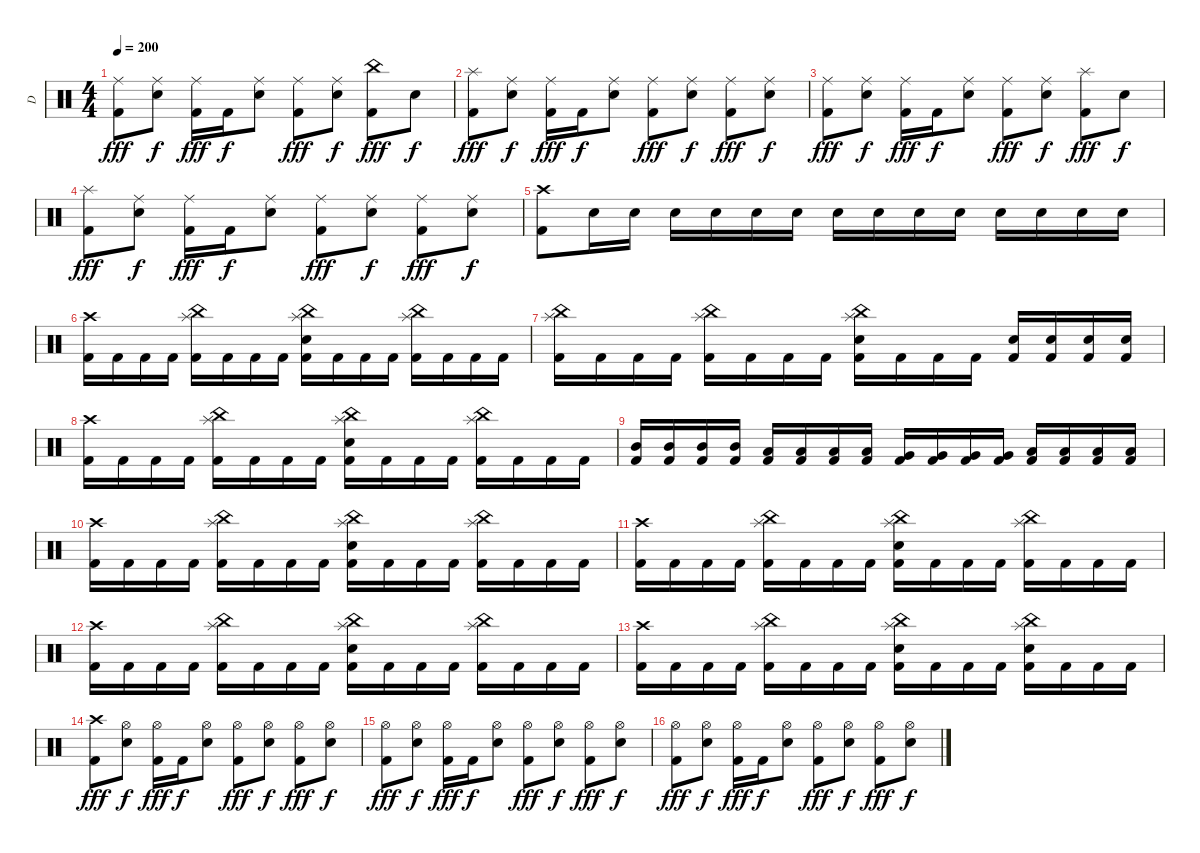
\track ("D" "D") {instrument percussion}
\staff {score}
\articulation defaults
\ts (4 4)
\tempo 200
\clef neutral
\ks c
("Ride (middle)" "Kick (hit) 2").8{dy fff} ("Ride (middle)" "Electric Snare (hit)").8{dy f} ("Ride (middle)" "Kick (hit) 2").16{dy fff} "Kick (hit) 2".16{dy f} ("Ride (middle)" "Electric Snare (hit)").8 ("Ride (middle)" "Kick (hit) 2").8{dy fff} ("Ride (middle)" "Electric Snare (hit)").8{dy f} ("China (hit)" "Kick (hit) 2").8{dy fff} "Electric Snare (hit)".8{dy f} |
("Splash (hit)" "Kick (hit) 2").8{dy fff} ("Ride (middle)" "Electric Snare (hit)").8{dy f} ("Ride (middle)" "Kick (hit) 2").16{dy fff} "Kick (hit) 2".16{dy f} ("Ride (middle)" "Electric Snare (hit)").8 ("Ride (middle)" "Kick (hit) 2").8{dy fff} ("Ride (middle)" "Electric Snare (hit)").8{dy f} ("Ride (middle)" "Kick (hit) 2").8{dy fff} ("Ride (middle)" "Electric Snare (hit)").8{dy f} |
("Ride (middle)" "Kick (hit) 2").8{dy fff} ("Ride (middle)" "Electric Snare (hit)").8{dy f} ("Ride (middle)" "Kick (hit) 2").16{dy fff} "Kick (hit) 2".16{dy f} ("Ride (middle)" "Electric Snare (hit)").8 ("Ride (middle)" "Kick (hit) 2").8{dy fff} ("Ride (middle)" "Electric Snare (hit)").8{dy f} ("Splash (hit)" "Kick (hit) 2").8{dy fff} "Electric Snare (hit)".8{dy f} |
("Splash (hit)" "Kick (hit) 2").8{dy fff} ("Ride (middle)" "Electric Snare (hit)").8{dy f} ("Ride (middle)" "Kick (hit) 2").16{dy fff} "Kick (hit) 2".16{dy f} ("Ride (middle)" "Electric Snare (hit)").8 ("Ride (middle)" "Kick (hit) 2").8{dy fff} ("Ride (middle)" "Electric Snare (hit)").8{dy f} ("Ride (middle)" "Kick (hit) 2").8{dy fff} ("Ride (middle)" "Electric Snare (hit)").8{dy f} |
("Crash high (hit)" "Kick (hit) 2").8 "Electric Snare (hit)".16 "Electric Snare (hit)".16 "Electric Snare (hit)".16 "Electric Snare (hit)".16 "Electric Snare (hit)".16 "Electric Snare (hit)".16 "Electric Snare (hit)".16 "Electric Snare (hit)".16 "Electric Snare (hit)".16 "Electric Snare (hit)".16 "Electric Snare (hit)".16 "Electric Snare (hit)".16 "Electric Snare (hit)".16 "Electric Snare (hit)".16 |
("Crash high (hit)" "Kick (hit) 2").16 "Kick (hit) 2".16 "Kick (hit) 2".16 "Kick (hit) 2".16 ("Splash (hit)" "China (hit)" "Kick (hit) 2").16 "Kick (hit) 2".16 "Kick (hit) 2".16 "Kick (hit) 2".16 ("Splash (hit)" "China (hit)" "Electric Snare (hit)" "Kick (hit) 2").16 "Kick (hit) 2".16 "Kick (hit) 2".16 "Kick (hit) 2".16 ("Splash (hit)" "China (hit)" "Kick (hit) 2").16 "Kick (hit) 2".16 "Kick (hit) 2".16 "Kick (hit) 2".16 |
("Splash (hit)" "China (hit)" "Kick (hit) 2").16 "Kick (hit) 2".16 "Kick (hit) 2".16 "Kick (hit) 2".16 ("Splash (hit)" "China (hit)" "Kick (hit) 2").16 "Kick (hit) 2".16 "Kick (hit) 2".16 "Kick (hit) 2".16 ("Splash (hit)" "China (hit)" "Electric Snare (hit)" "Kick (hit) 2").16 "Kick (hit) 2".16 "Kick (hit) 2".16 "Kick (hit) 2".16 ("Electric Snare (hit)" "Kick (hit) 2").16 ("Electric Snare (hit)" "Kick (hit) 2").16 ("Electric Snare (hit)" "Kick (hit) 2").16 ("Electric Snare (hit)" "Kick (hit) 2").16 |
("Crash high (hit)" "Kick (hit) 2").16 "Kick (hit) 2".16 "Kick (hit) 2".16 "Kick (hit) 2".16 ("Splash (hit)" "China (hit)" "Kick (hit) 2").16 "Kick (hit) 2".16 "Kick (hit) 2".16 "Kick (hit) 2".16 ("Splash (hit)" "China (hit)" "Electric Snare (hit)" "Kick (hit) 2").16 "Kick (hit) 2".16 "Kick (hit) 2".16 "Kick (hit) 2".16 ("Splash (hit)" "China (hit)" "Kick (hit) 2").16 "Kick (hit) 2".16 "Kick (hit) 2".16 "Kick (hit) 2".16 |
("Mid Tom (hit)" "Kick (hit) 2").16 ("Mid Tom (hit)" "Kick (hit) 2").16 ("Mid Tom (hit)" "Kick (hit) 2").16 ("Mid Tom (hit)" "Kick (hit) 2").16 ("Low Tom (hit)" "Kick (hit) 2").16 ("Low Tom (hit)" "Kick (hit) 2").16 ("Low Tom (hit)" "Kick (hit) 2").16 ("Low Tom (hit)" "Kick (hit) 2").16 ("Very Low Tom (hit)" "Kick (hit) 2").16 ("Very Low Tom (hit)" "Kick (hit) 2").16 ("Very Low Tom (hit)" "Kick (hit) 2").16 ("Very Low Tom (hit)" "Kick (hit) 2").16 ("Low Floor Tom (hit)" "Kick (hit) 2").16 ("Low Floor Tom (hit)" "Kick (hit) 2").16 ("Low Floor Tom (hit)" "Kick (hit) 2").16 ("Low Floor Tom (hit)" "Kick (hit) 2").16 |
("Crash high (hit)" "Kick (hit) 2").16 "Kick (hit) 2".16 "Kick (hit) 2".16 "Kick (hit) 2".16 ("Splash (hit)" "China (hit)" "Kick (hit) 2").16 "Kick (hit) 2".16 "Kick (hit) 2".16 "Kick (hit) 2".16 ("Splash (hit)" "China (hit)" "Electric Snare (hit)" "Kick (hit) 2").16 "Kick (hit) 2".16 "Kick (hit) 2".16 "Kick (hit) 2".16 ("Splash (hit)" "China (hit)" "Kick (hit) 2").16 "Kick (hit) 2".16 "Kick (hit) 2".16 "Kick (hit) 2".16 |
("Crash high (hit)" "Kick (hit) 2").16 "Kick (hit) 2".16 "Kick (hit) 2".16 "Kick (hit) 2".16 ("Splash (hit)" "China (hit)" "Kick (hit) 2").16 "Kick (hit) 2".16 "Kick (hit) 2".16 "Kick (hit) 2".16 ("Splash (hit)" "China (hit)" "Electric Snare (hit)" "Kick (hit) 2").16 "Kick (hit) 2".16 "Kick (hit) 2".16 "Kick (hit) 2".16 ("Splash (hit)" "China (hit)" "Kick (hit) 2").16 "Kick (hit) 2".16 "Kick (hit) 2".16 "Kick (hit) 2".16 |
("Crash high (hit)" "Kick (hit) 2").16 "Kick (hit) 2".16 "Kick (hit) 2".16 "Kick (hit) 2".16 ("Splash (hit)" "China (hit)" "Kick (hit) 2").16 "Kick (hit) 2".16 "Kick (hit) 2".16 "Kick (hit) 2".16 ("Splash (hit)" "China (hit)" "Electric Snare (hit)" "Kick (hit) 2").16 "Kick (hit) 2".16 "Kick (hit) 2".16 "Kick (hit) 2".16 ("Splash (hit)" "China (hit)" "Kick (hit) 2").16 "Kick (hit) 2".16 "Kick (hit) 2".16 "Kick (hit) 2".16 |
("Crash high (hit)" "Kick (hit) 2").16 "Kick (hit) 2".16 "Kick (hit) 2".16 "Kick (hit) 2".16 ("Splash (hit)" "China (hit)" "Kick (hit) 2").16 "Kick (hit) 2".16 "Kick (hit) 2".16 "Kick (hit) 2".16 ("Splash (hit)" "China (hit)" "Electric Snare (hit)" "Kick (hit) 2").16 "Kick (hit) 2".16 "Kick (hit) 2".16 "Kick (hit) 2".16 ("Splash (hit)" "China (hit)" "Electric Snare (hit)" "Kick (hit) 2").16 "Kick (hit) 2".16 "Kick (hit) 2".16 "Kick (hit) 2".16 |
("Crash high (hit)" "Kick (hit) 2").8{dy fff} ("Hi-Hat (open)" "Electric Snare (hit)").8{dy f} ("Hi-Hat (open)" "Kick (hit) 2").16{dy fff} "Kick (hit) 2".16{dy f} ("Hi-Hat (open)" "Electric Snare (hit)").8 ("Hi-Hat (open)" "Kick (hit) 2").8{dy fff} ("Hi-Hat (open)" "Electric Snare (hit)").8{dy f} ("Hi-Hat (open)" "Kick (hit) 2").8{dy fff} ("Hi-Hat (open)" "Electric Snare (hit)").8{dy f} |
("Hi-Hat (open)" "Kick (hit) 2").8{dy fff} ("Hi-Hat (open)" "Electric Snare (hit)").8{dy f} ("Hi-Hat (open)" "Kick (hit) 2").16{dy fff} "Kick (hit) 2".16{dy f} ("Hi-Hat (open)" "Electric Snare (hit)").8 ("Hi-Hat (open)" "Kick (hit) 2").8{dy fff} ("Hi-Hat (open)" "Electric Snare (hit)").8{dy f} ("Hi-Hat (open)" "Kick (hit) 2").8{dy fff} ("Hi-Hat (open)" "Electric Snare (hit)").8{dy f} |
("Hi-Hat (open)" "Kick (hit) 2").8{dy fff} ("Hi-Hat (open)" "Electric Snare (hit)").8{dy f} ("Hi-Hat (open)" "Kick (hit) 2").16{dy fff} "Kick (hit) 2".16{dy f} ("Hi-Hat (open)" "Electric Snare (hit)").8 ("Hi-Hat (open)" "Kick (hit) 2").8{dy fff} ("Hi-Hat (open)" "Electric Snare (hit)").8{dy f} ("Hi-Hat (open)" "Kick (hit) 2").8{dy fff} ("Hi-Hat (open)" "Electric Snare (hit)").8{dy f}
